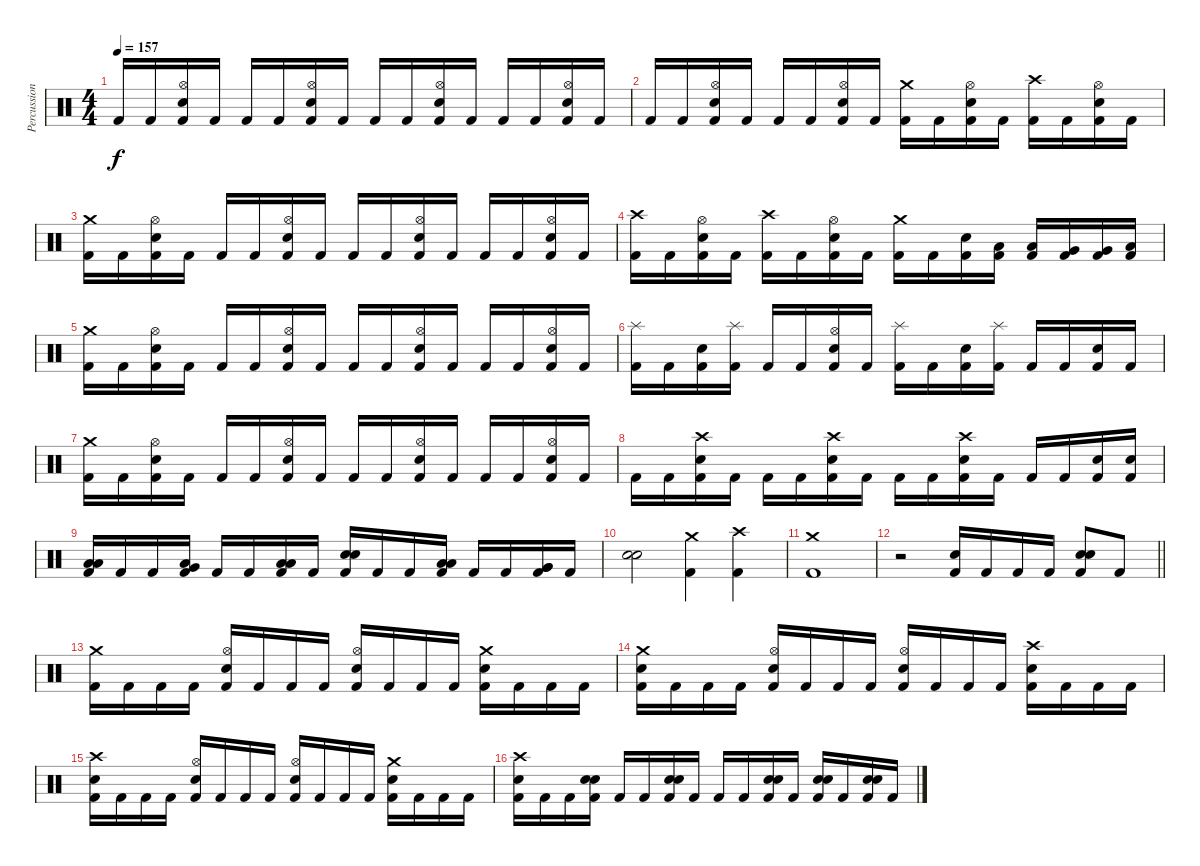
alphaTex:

\track ("Percussion" "Percussion") {instrument percussion}
\staff {score}
\articulation defaults
\ts (4 4)
\tempo 157
\clef neutral
\ks c "Kick (hit) 2".16{dy f} "Kick (hit) 2".16
("Hi-Hat (open)" "Electric Snare (hit)" "Kick (hit) 2").16 "Kick (hit) 2".16 "Kick (hit) 2".16 "Kick (hit) 2".16 ("Hi-Hat (open)" "Electric Snare (hit)" "Kick (hit) 2").16 "Kick (hit) 2".16 "Kick (hit) 2".16 "Kick (hit) 2".16 ("Hi-Hat (open)" "Electric Snare (hit)" "Kick (hit) 2").16 "Kick (hit) 2".16 "Kick (hit) 2".16 "Kick (hit) 2".16 ("Hi-Hat (open)" "Electric Snare (hit)" "Kick (hit) 2").16 "Kick (hit) 2".16 |
"Kick (hit) 2".16 "Kick (hit) 2".16 ("Hi-Hat (open)" "Electric Snare (hit)" "Kick (hit) 2").16 "Kick (hit) 2".16 "Kick (hit) 2".16 "Kick (hit) 2".16 ("Hi-Hat (open)" "Electric Snare (hit)" "Kick (hit) 2").16 "Kick (hit) 2".16 ("Crash medium (hit)" "Kick (hit) 2").16 "Kick (hit) 2".16 ("Hi-Hat (open)" "Electric Snare (hit)" "Kick (hit) 2").16 "Kick (hit) 2".16 ("Crash high (hit)" "Kick (hit) 2").16 "Kick (hit) 2".16 ("Hi-Hat (open)" "Electric Snare (hit)" "Kick (hit) 2").16 "Kick (hit) 2".16 |
("Crash medium (hit)" "Kick (hit) 2").16 "Kick (hit) 2".16 ("Hi-Hat (open)" "Electric Snare (hit)" "Kick (hit) 2").16 "Kick (hit) 2".16 "Kick (hit) 2".16 "Kick (hit) 2".16 ("Hi-Hat (open)" "Electric Snare (hit)" "Kick (hit) 2").16 "Kick (hit) 2".16 "Kick (hit) 2".16 "Kick (hit) 2".16 ("Hi-Hat (open)" "Electric Snare (hit)" "Kick (hit) 2").16 "Kick (hit) 2".16 "Kick (hit) 2".16 "Kick (hit) 2".16 ("Hi-Hat (open)" "Electric Snare (hit)" "Kick (hit) 2").16 "Kick (hit) 2".16 |
("Crash high (hit)" "Kick (hit) 2").16 "Kick (hit) 2".16 ("Hi-Hat (open)" "Electric Snare (hit)" "Kick (hit) 2").16 "Kick (hit) 2".16 ("Crash high (hit)" "Kick (hit) 2").16 "Kick (hit) 2".16 ("Hi-Hat (open)" "Electric Snare (hit)" "Kick (hit) 2").16 "Kick (hit) 2".16 ("Crash medium (hit)" "Kick (hit) 2").16 "Kick (hit) 2".16 ("Electric Snare (hit)" "Kick (hit) 2").16 ("Low Tom (hit)" "Kick (hit) 2").16 ("Low Tom (hit)" "Kick (hit) 2").16 ("Very Low Tom (hit)" "Kick (hit) 2").16 ("Very Low Tom (hit)" "Kick (hit) 2").16 ("Low Floor Tom (hit)" "Kick (hit) 2").16 |
("Crash medium (hit)" "Kick (hit) 2").16 "Kick (hit) 2".16 ("Hi-Hat (open)" "Electric Snare (hit)" "Kick (hit) 2").16 "Kick (hit) 2".16 "Kick (hit) 2".16 "Kick (hit) 2".16 ("Hi-Hat (open)" "Electric Snare (hit)" "Kick (hit) 2").16 "Kick (hit) 2".16 "Kick (hit) 2".16 "Kick (hit) 2".16 ("Hi-Hat (open)" "Electric Snare (hit)" "Kick (hit) 2").16 "Kick (hit) 2".16 "Kick (hit) 2".16 "Kick (hit) 2".16 ("Hi-Hat (open)" "Electric Snare (hit)" "Kick (hit) 2").16 "Kick (hit) 2".16 |
("Splash (hit)" "Kick (hit) 2").16 "Kick (hit) 2".16 ("Electric Snare (hit)" "Kick (hit) 2").16 ("Splash (hit)" "Kick (hit) 2").16 "Kick (hit) 2".16 "Kick (hit) 2".16 ("Hi-Hat (open)" "Electric Snare (hit)" "Kick (hit) 2").16 "Kick (hit) 2".16 ("Splash (hit)" "Kick (hit) 2").16 "Kick (hit) 2".16 ("Electric Snare (hit)" "Kick (hit) 2").16 ("Splash (hit)" "Kick (hit) 2").16 "Kick (hit) 2".16 "Kick (hit) 2".16 ("Electric Snare (hit)" "Kick (hit) 2").16 "Kick (hit) 2".16 |
("Crash medium (hit)" "Kick (hit) 2").16 "Kick (hit) 2".16 ("Hi-Hat (open)" "Electric Snare (hit)" "Kick (hit) 2").16 "Kick (hit) 2".16 "Kick (hit) 2".16 "Kick (hit) 2".16 ("Hi-Hat (open)" "Electric Snare (hit)" "Kick (hit) 2").16 "Kick (hit) 2".16 "Kick (hit) 2".16 "Kick (hit) 2".16 ("Hi-Hat (open)" "Electric Snare (hit)" "Kick (hit) 2").16 "Kick (hit) 2".16 "Kick (hit) 2".16 "Kick (hit) 2".16 ("Hi-Hat (open)" "Electric Snare (hit)" "Kick (hit) 2").16 "Kick (hit) 2".16 |
"Kick (hit) 2".16 "Kick (hit) 2".16 ("Crash high (hit)" "Electric Snare (hit)" "Kick (hit) 2").16 "Kick (hit) 2".16 "Kick (hit) 2".16 "Kick (hit) 2".16 ("Crash high (hit)" "Electric Snare (hit)" "Kick (hit) 2").16 "Kick (hit) 2".16 "Kick (hit) 2".16 "Kick (hit) 2".16 ("Crash high (hit)" "Electric Snare (hit)" "Kick (hit) 2").16 "Kick (hit) 2".16 "Kick (hit) 2".16 "Kick (hit) 2".16 ("Electric Snare (hit)" "Kick (hit) 2").16 ("Electric Snare (hit)" "Kick (hit) 2").16 |
("Low Floor Tom (hit)" "Low Floor Tom (hit)" "Kick (hit) 2").16 "Kick (hit) 2".16 "Kick (hit) 2".16 ("Very Low Tom (hit)" "Low Floor Tom (hit)" "Kick (hit) 2").16 "Kick (hit) 2".16 "Kick (hit) 2".16 ("Low Floor Tom (hit)" "Low Floor Tom (hit)" "Kick (hit) 2").16 "Kick (hit) 2".16 ("Electric Snare (hit)" "Electric Snare (hit)" "Kick (hit) 2").16 "Kick (hit) 2".16 "Kick (hit) 2".16 ("Low Tom (hit)" "Low Tom (hit)" "Kick (hit) 2").16 "Kick (hit) 2".16 "Kick (hit) 2".16 ("Very Low Tom (hit)" "Very Low Tom (hit)" "Kick (hit) 2").16 "Kick (hit) 2".16 |
("Electric Snare (hit)" "Electric Snare (hit)").2 ("Crash medium (hit)" "Kick (hit) 2").4 ("Crash high (hit)" "Kick (hit) 2").4 |
("Crash medium (hit)" "Kick (hit) 2").1 |
\barLineRight lightlight
r.2 ("Electric Snare (hit)" "Kick (hit) 2").16 "Kick (hit) 2".16 "Kick (hit) 2".16 "Kick (hit) 2".16 ("Electric Snare (hit)" "Electric Snare (hit)" "Kick (hit) 2").8 "Kick (hit) 2".8 |
("Crash medium (hit)" "Kick (hit) 2").16 "Kick (hit) 2".16 "Kick (hit) 2".16 "Kick (hit) 2".16 ("Hi-Hat (open)" "Electric Snare (hit)" "Kick (hit) 2").16 "Kick (hit) 2".16 "Kick (hit) 2".16 "Kick (hit) 2".16 ("Hi-Hat (open)" "Electric Snare (hit)" "Kick (hit) 2").16 "Kick (hit) 2".16 "Kick (hit) 2".16 "Kick (hit) 2".16 ("Crash medium (hit)" "Electric Snare (hit)" "Kick (hit) 2").16 "Kick (hit) 2".16 "Kick (hit) 2".16 "Kick (hit) 2".16 |
("Crash medium (hit)" "Electric Snare (hit)" "Kick (hit) 2").16 "Kick (hit) 2".16 "Kick (hit) 2".16 "Kick (hit) 2".16 ("Hi-Hat (open)" "Electric Snare (hit)" "Kick (hit) 2").16 "Kick (hit) 2".16 "Kick (hit) 2".16 "Kick (hit) 2".16 ("Hi-Hat (open)" "Electric Snare (hit)" "Kick (hit) 2").16 "Kick (hit) 2".16 "Kick (hit) 2".16 "Kick (hit) 2".16 ("Crash high (hit)" "Electric Snare (hit)" "Kick (hit) 2").16 "Kick (hit) 2".16 "Kick (hit) 2".16 "Kick (hit) 2".16 |
("Crash high (hit)" "Electric Snare (hit)" "Kick (hit) 2").16 "Kick (hit) 2".16 "Kick (hit) 2".16 "Kick (hit) 2".16 ("Hi-Hat (open)" "Electric Snare (hit)" "Kick (hit) 2").16 "Kick (hit) 2".16 "Kick (hit) 2".16 "Kick (hit) 2".16 ("Hi-Hat (open)" "Electric Snare (hit)" "Kick (hit) 2").16 "Kick (hit) 2".16 "Kick (hit) 2".16 "Kick (hit) 2".16 ("Crash medium (hit)" "Electric Snare (hit)" "Kick (hit) 2").16 "Kick (hit) 2".16 "Kick (hit) 2".16 "Kick (hit) 2".16 |
("Crash high (hit)" "Electric Snare (hit)" "Kick (hit) 2").16 "Kick (hit) 2".16 "Kick (hit) 2".16 ("Electric Snare (hit)" "Electric Snare (hit)" "Kick (hit) 2").16 "Kick (hit) 2".16 "Kick (hit) 2".16 ("Electric Snare (hit)" "Electric Snare (hit)" "Kick (hit) 2").16 "Kick (hit) 2".16 "Kick (hit) 2".16 "Kick (hit) 2".16 ("Electric Snare (hit)" "Electric Snare (hit)" "Kick (hit) 2").16 "Kick (hit) 2".16 ("Electric Snare (hit)" "Electric Snare (hit)" "Kick (hit) 2").16 "Kick (hit) 2".16 ("Electric Snare (hit)" "Electric Snare (hit)" "Kick (hit) 2").16 "Kick (hit) 2".16
